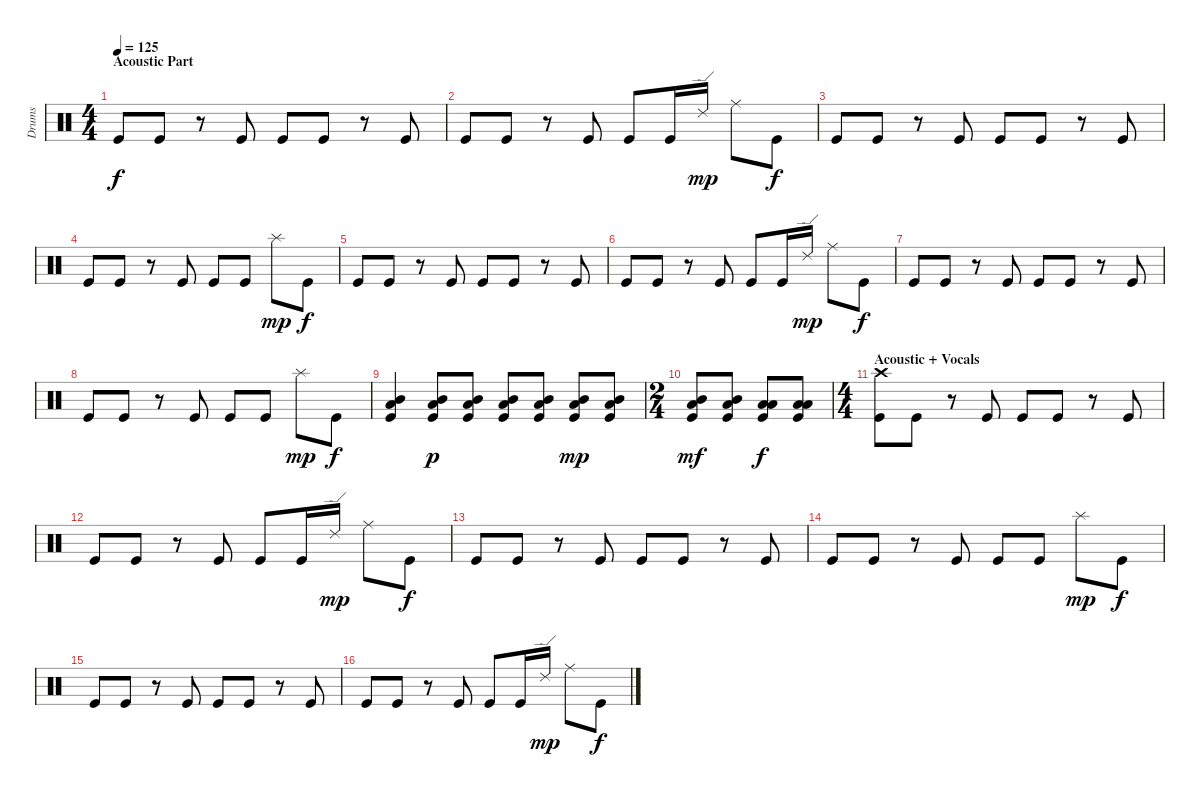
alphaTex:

\track ("Drums" "Drums") {instrument percussion}
\staff {score}
\articulation defaults
\ts (4 4)
\section ("" "Acoustic Part")
\tempo 125
\clef neutral
\ks c "Kick (hit)".8{dy f} "Kick (hit)".8
r.8 "Kick (hit)".8 "Kick (hit)".8 "Kick (hit)".8 r.8 "Kick (hit)".8 |
"Kick (hit)".8 "Kick (hit)".8 r.8 "Kick (hit)".8 "Kick (hit)".8 "Kick (hit)".16 "Ride (edge) 2".16{dy mp} "Ride (middle)".8 "Kick (hit)".8{dy f} |
"Kick (hit)".8 "Kick (hit)".8 r.8 "Kick (hit)".8 "Kick (hit)".8 "Kick (hit)".8 r.8 "Kick (hit)".8 |
"Kick (hit)".8 "Kick (hit)".8 r.8 "Kick (hit)".8 "Kick (hit)".8 "Kick (hit)".8 "Splash (hit)".8{dy mp} "Kick (hit)".8{dy f} |
"Kick (hit)".8 "Kick (hit)".8 r.8 "Kick (hit)".8 "Kick (hit)".8 "Kick (hit)".8 r.8 "Kick (hit)".8 |
"Kick (hit)".8 "Kick (hit)".8 r.8 "Kick (hit)".8 "Kick (hit)".8 "Kick (hit)".16 "Ride (edge) 2".16{dy mp} "Ride (middle)".8 "Kick (hit)".8{dy f} |
"Kick (hit)".8 "Kick (hit)".8 r.8 "Kick (hit)".8 "Kick (hit)".8 "Kick (hit)".8 r.8 "Kick (hit)".8 |
"Kick (hit)".8 "Kick (hit)".8 r.8 "Kick (hit)".8 "Kick (hit)".8 "Kick (hit)".8 "Splash (hit)".8{dy mp} "Kick (hit)".8{dy f} |
("Mid Tom (hit)" "Low Floor Tom (hit)" "Kick (hit)").4 ("Mid Tom (hit)" "Low Floor Tom (hit)" "Kick (hit)").8{dy p} ("Mid Tom (hit)" "Low Floor Tom (hit)" "Kick (hit)").8 ("Mid Tom (hit)" "Low Floor Tom (hit)" "Kick (hit)").8 ("Mid Tom (hit)" "Low Floor Tom (hit)" "Kick (hit)").8 ("Mid Tom (hit)" "Low Floor Tom (hit)" "Kick (hit)").8{dy mp} ("Mid Tom (hit)" "Low Floor Tom (hit)" "Kick (hit)").8 |
\ts (2 4)
("Mid Tom (hit)" "Low Floor Tom (hit)" "Kick (hit)").8{dy mf} ("Mid Tom (hit)" "Low Floor Tom (hit)" "Kick (hit)").8 ("Low Tom (hit)" "Low Floor Tom (hit)" "Kick (hit)").8{dy f} ("Low Tom (hit)" "Low Floor Tom (hit)" "Kick (hit)").8 |
\ts (4 4)
\section ("" "Acoustic + Vocals")
("Crash high (hit)" "Kick (hit)").8 "Kick (hit)".8 r.8 "Kick (hit)".8 "Kick (hit)".8 "Kick (hit)".8 r.8 "Kick (hit)".8 |
"Kick (hit)".8 "Kick (hit)".8 r.8 "Kick (hit)".8 "Kick (hit)".8 "Kick (hit)".16 "Ride (edge) 2".16{dy mp} "Ride (middle)".8 "Kick (hit)".8{dy f} |
"Kick (hit)".8 "Kick (hit)".8 r.8 "Kick (hit)".8 "Kick (hit)".8 "Kick (hit)".8 r.8 "Kick (hit)".8 |
"Kick (hit)".8 "Kick (hit)".8 r.8 "Kick (hit)".8 "Kick (hit)".8 "Kick (hit)".8 "Splash (hit)".8{dy mp} "Kick (hit)".8{dy f} |
"Kick (hit)".8 "Kick (hit)".8 r.8 "Kick (hit)".8 "Kick (hit)".8 "Kick (hit)".8 r.8 "Kick (hit)".8 |
"Kick (hit)".8 "Kick (hit)".8 r.8 "Kick (hit)".8 "Kick (hit)".8 "Kick (hit)".16 "Ride (edge) 2".16{dy mp} "Ride (middle)".8 "Kick (hit)".8{dy f}
